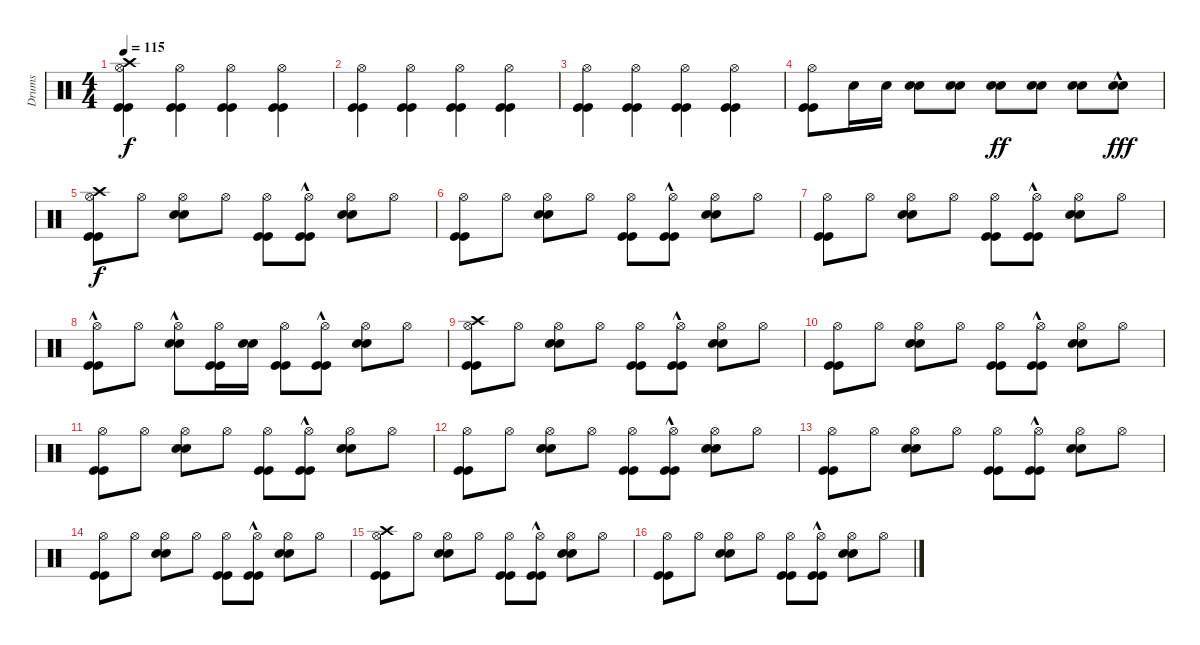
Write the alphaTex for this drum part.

\track ("Drums" "Drums") {instrument percussion}
\staff {score}
\articulation defaults
\ts (4 4)
\tempo 115
\clef neutral
\ks c
("Kick (hit)" "Kick (hit)" "Hi-Hat (open)" "Crash high (hit)").4{dy f} ("Kick (hit)" "Kick (hit)" "Hi-Hat (open)").4 ("Kick (hit)" "Kick (hit)" "Hi-Hat (open)").4 ("Kick (hit)" "Kick (hit)" "Hi-Hat (open)").4 |
("Kick (hit)" "Kick (hit)" "Hi-Hat (open)").4 ("Kick (hit)" "Kick (hit)" "Hi-Hat (open)").4 ("Kick (hit)" "Kick (hit)" "Hi-Hat (open)").4 ("Kick (hit)" "Kick (hit)" "Hi-Hat (open)").4 |
("Kick (hit)" "Kick (hit)" "Hi-Hat (open)").4 ("Kick (hit)" "Kick (hit)" "Hi-Hat (open)").4 ("Kick (hit)" "Kick (hit)" "Hi-Hat (open)").4 ("Kick (hit)" "Kick (hit)" "Hi-Hat (open)").4 |
("Kick (hit)" "Kick (hit)" "Hi-Hat (open)").8 "Snare (hit) 2".16 "Snare (hit) 2".16 ("Snare (hit) 2" "Snare (hit) 2").8 ("Snare (hit) 2" "Snare (hit) 2").8 ("Snare (hit) 2" "Snare (hit) 2").8{dy ff} ("Snare (hit) 2" "Snare (hit) 2").8 ("Snare (hit) 2" "Snare (hit) 2").8 ("Snare (hit) 2"{hac} "Snare (hit) 2"{hac}).8{dy fff} |
("Kick (hit)" "Kick (hit)" "Hi-Hat (open)" "Crash high (hit)").8{dy f} "Hi-Hat (open)".8 ("Snare (hit) 2" "Snare (hit) 2" "Hi-Hat (open)").8 "Hi-Hat (open)".8 ("Kick (hit)" "Kick (hit)" "Hi-Hat (open)").8 ("Kick (hit)"{hac} "Kick (hit)"{hac} "Hi-Hat (open)").8 ("Snare (hit) 2" "Snare (hit) 2" "Hi-Hat (open)").8 "Hi-Hat (open)".8 |
("Kick (hit)" "Kick (hit)" "Hi-Hat (open)").8 "Hi-Hat (open)".8 ("Snare (hit) 2" "Snare (hit) 2" "Hi-Hat (open)").8 "Hi-Hat (open)".8 ("Kick (hit)" "Kick (hit)" "Hi-Hat (open)").8 ("Kick (hit)"{hac} "Kick (hit)"{hac} "Hi-Hat (open)").8 ("Snare (hit) 2" "Snare (hit) 2" "Hi-Hat (open)").8 "Hi-Hat (open)".8 |
("Kick (hit)" "Kick (hit)" "Hi-Hat (open)").8 "Hi-Hat (open)".8 ("Snare (hit) 2" "Snare (hit) 2" "Hi-Hat (open)").8 "Hi-Hat (open)".8 ("Kick (hit)" "Kick (hit)" "Hi-Hat (open)").8 ("Kick (hit)"{hac} "Kick (hit)"{hac} "Hi-Hat (open)").8 ("Snare (hit) 2" "Snare (hit) 2" "Hi-Hat (open)").8 "Hi-Hat (open)".8 |
("Kick (hit)"{hac} "Kick (hit)"{hac} "Hi-Hat (open)").8 "Hi-Hat (open)".8 ("Snare (hit) 2"{hac} "Snare (hit) 2"{hac} "Hi-Hat (open)").8 ("Kick (hit)" "Kick (hit)" "Hi-Hat (open)").16 ("Snare (hit) 2" "Snare (hit) 2").16 ("Kick (hit)" "Kick (hit)" "Hi-Hat (open)").8 ("Kick (hit)"{hac} "Kick (hit)"{hac} "Hi-Hat (open)").8 ("Snare (hit) 2" "Snare (hit) 2" "Hi-Hat (open)").8 "Hi-Hat (open)".8 |
("Kick (hit)" "Kick (hit)" "Hi-Hat (open)" "Crash high (hit)").8 "Hi-Hat (open)".8 ("Snare (hit) 2" "Snare (hit) 2" "Hi-Hat (open)").8 "Hi-Hat (open)".8 ("Kick (hit)" "Kick (hit)" "Hi-Hat (open)").8 ("Kick (hit)"{hac} "Kick (hit)"{hac} "Hi-Hat (open)").8 ("Snare (hit) 2" "Snare (hit) 2" "Hi-Hat (open)").8 "Hi-Hat (open)".8 |
("Kick (hit)" "Kick (hit)" "Hi-Hat (open)").8 "Hi-Hat (open)".8 ("Snare (hit) 2" "Snare (hit) 2" "Hi-Hat (open)").8 "Hi-Hat (open)".8 ("Kick (hit)" "Kick (hit)" "Hi-Hat (open)").8 ("Kick (hit)"{hac} "Kick (hit)"{hac} "Hi-Hat (open)").8 ("Snare (hit) 2" "Snare (hit) 2" "Hi-Hat (open)").8 "Hi-Hat (open)".8 |
("Kick (hit)" "Kick (hit)" "Hi-Hat (open)").8 "Hi-Hat (open)".8 ("Snare (hit) 2" "Snare (hit) 2" "Hi-Hat (open)").8 "Hi-Hat (open)".8 ("Kick (hit)" "Kick (hit)" "Hi-Hat (open)").8 ("Kick (hit)"{hac} "Kick (hit)"{hac} "Hi-Hat (open)").8 ("Snare (hit) 2" "Snare (hit) 2" "Hi-Hat (open)").8 "Hi-Hat (open)".8 |
("Kick (hit)" "Kick (hit)" "Hi-Hat (open)").8 "Hi-Hat (open)".8 ("Snare (hit) 2" "Snare (hit) 2" "Hi-Hat (open)").8 "Hi-Hat (open)".8 ("Kick (hit)" "Kick (hit)" "Hi-Hat (open)").8 ("Kick (hit)"{hac} "Kick (hit)"{hac} "Hi-Hat (open)").8 ("Snare (hit) 2" "Snare (hit) 2" "Hi-Hat (open)").8 "Hi-Hat (open)".8 |
("Kick (hit)" "Kick (hit)" "Hi-Hat (open)").8 "Hi-Hat (open)".8 ("Snare (hit) 2" "Snare (hit) 2" "Hi-Hat (open)").8 "Hi-Hat (open)".8 ("Kick (hit)" "Kick (hit)" "Hi-Hat (open)").8 ("Kick (hit)"{hac} "Kick (hit)"{hac} "Hi-Hat (open)").8 ("Snare (hit) 2" "Snare (hit) 2" "Hi-Hat (open)").8 "Hi-Hat (open)".8 |
("Kick (hit)" "Kick (hit)" "Hi-Hat (open)").8 "Hi-Hat (open)".8 ("Snare (hit) 2" "Snare (hit) 2" "Hi-Hat (open)").8 "Hi-Hat (open)".8 ("Kick (hit)" "Kick (hit)" "Hi-Hat (open)").8 ("Kick (hit)"{hac} "Kick (hit)"{hac} "Hi-Hat (open)").8 ("Snare (hit) 2" "Snare (hit) 2" "Hi-Hat (open)").8 "Hi-Hat (open)".8 |
("Kick (hit)" "Kick (hit)" "Hi-Hat (open)" "Crash high (hit)").8 "Hi-Hat (open)".8 ("Snare (hit) 2" "Snare (hit) 2" "Hi-Hat (open)").8 "Hi-Hat (open)".8 ("Kick (hit)" "Kick (hit)" "Hi-Hat (open)").8 ("Kick (hit)"{hac} "Kick (hit)"{hac} "Hi-Hat (open)").8 ("Snare (hit) 2" "Snare (hit) 2" "Hi-Hat (open)").8 "Hi-Hat (open)".8 |
("Kick (hit)" "Kick (hit)" "Hi-Hat (open)").8 "Hi-Hat (open)".8 ("Snare (hit) 2" "Snare (hit) 2" "Hi-Hat (open)").8 "Hi-Hat (open)".8 ("Kick (hit)" "Kick (hit)" "Hi-Hat (open)").8 ("Kick (hit)"{hac} "Kick (hit)"{hac} "Hi-Hat (open)").8 ("Snare (hit) 2" "Snare (hit) 2" "Hi-Hat (open)").8 "Hi-Hat (open)".8
